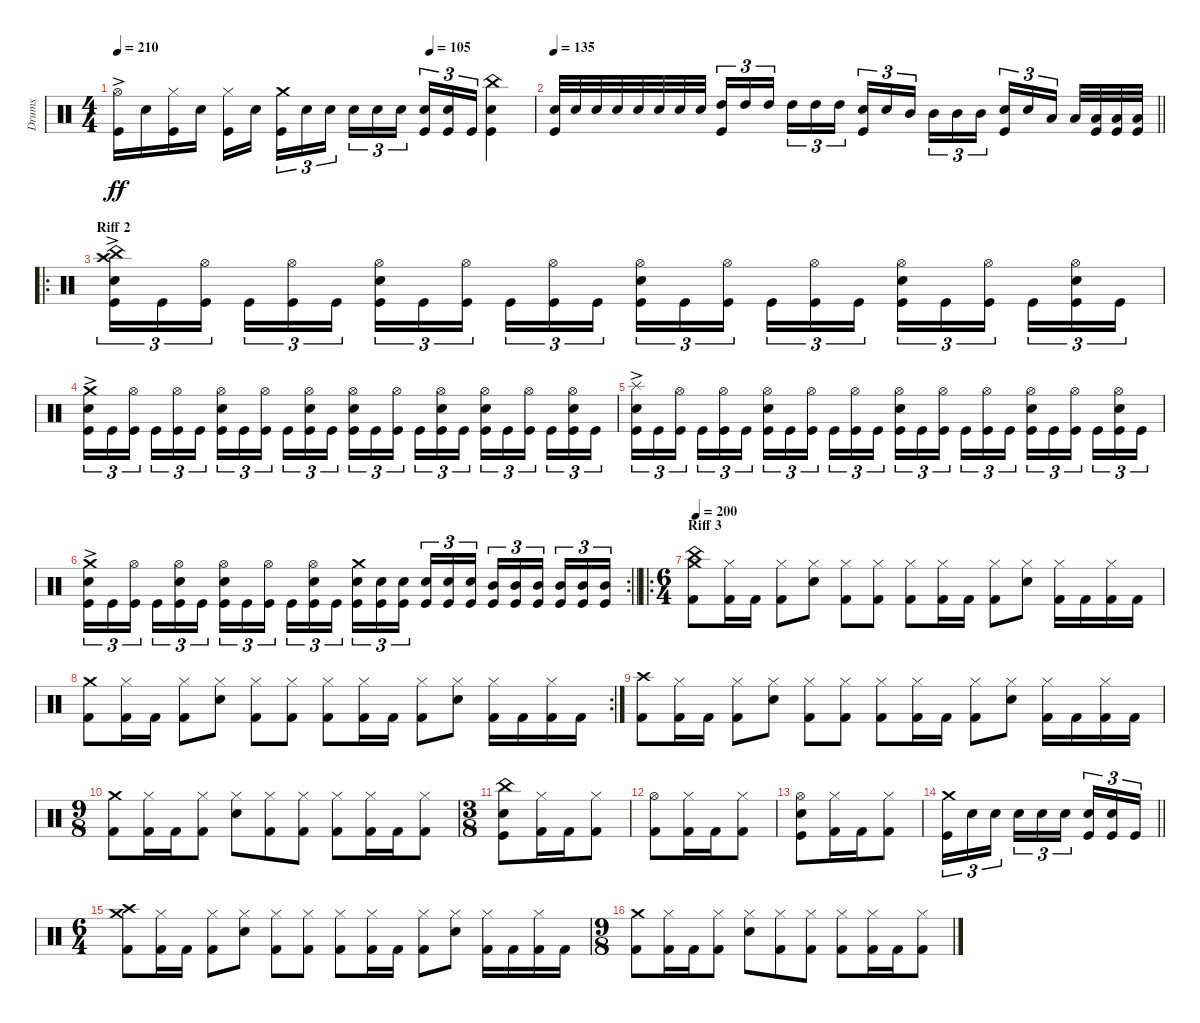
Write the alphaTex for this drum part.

\track ("Drums" "Drums") {instrument percussion}
\staff {score}
\articulation defaults
\ts (4 4)
\tempo 210
\tempo (105 0.75)
\clef neutral
\ks c
("Hi-Hat (open)"{ac} "Kick (hit)").16{dy ff} "Electric Snare (hit)".16 ("Hi-Hat (closed)" "Kick (hit)").16 "Electric Snare (hit)".16 ("Hi-Hat (closed)" "Kick (hit)").16 "Electric Snare (hit)".16{beam splitsecondary} ("Crash medium (hit)" "Kick (hit)").16{tu (3 2)} "Electric Snare (hit)".16{tu (3 2)} "Electric Snare (hit)".16{tu (3 2)} "Electric Snare (hit)".16{tu (3 2)} "Electric Snare (hit)".16{tu (3 2)} "Electric Snare (hit)".16{tu (3 2) beam splitsecondary} ("Electric Snare (hit)" "Kick (hit)").16{tu (3 2)} ("Electric Snare (hit)" "Kick (hit)").16{tu (3 2)} "Kick (hit)".16{tu (3 2)} ("China (hit)" "Electric Snare (hit)" "Kick (hit)").4 |
\tempo 135
\barLineRight lightlight
("Electric Snare (hit)" "Kick (hit)").32{volume 16} "Electric Snare (hit)".32 "Electric Snare (hit)".32 "Electric Snare (hit)".32 "Electric Snare (hit)".32 "Electric Snare (hit)".32 "Electric Snare (hit)".32 "Electric Snare (hit)".32 ("High Tom (hit)" "Kick (hit)").16{tu (3 2)} "High Tom (hit)".16{tu (3 2)} "High Tom (hit)".16{tu (3 2) beam splitsecondary} "High Tom (hit)".16{tu (3 2)} "High Tom (hit)".16{tu (3 2)} "High Tom (hit)".16{tu (3 2)} ("Electric Snare (hit)" "Kick (hit)").16{tu (3 2)} "Electric Snare (hit)".16{tu (3 2)} "Mid Tom (hit)".16{tu (3 2) beam splitsecondary} "Mid Tom (hit)".16{tu (3 2)} "Mid Tom (hit)".16{tu (3 2)} "Mid Tom (hit)".16{tu (3 2)} ("Electric Snare (hit)" "Kick (hit)").16{tu (3 2)} "Electric Snare (hit)".16{tu (3 2)} "Low Tom (hit)".16{tu (3 2) beam splitsecondary} "Low Tom (hit)".32 ("Low Tom (hit)" "Kick (hit)").32 ("Low Tom (hit)" "Kick (hit)").32 ("Low Tom (hit)" "Kick (hit)").32 |
\ro
\section ("" "Riff 2")
("China (hit)"{ac} "Crash high (hit)" "Electric Snare (hit)" "Kick (hit)").16{tu (3 2) volume 15} "Kick (hit)".16{tu (3 2)} ("Hi-Hat (open)" "Kick (hit)").16{tu (3 2) beam splitsecondary} "Kick (hit)".16{tu (3 2)} ("Hi-Hat (open)" "Kick (hit)").16{tu (3 2)} "Kick (hit)".16{tu (3 2)} ("Hi-Hat (open)" "Electric Snare (hit)" "Kick (hit)").16{tu (3 2)} "Kick (hit)".16{tu (3 2)} ("Hi-Hat (open)" "Kick (hit)").16{tu (3 2) beam splitsecondary} "Kick (hit)".16{tu (3 2)} ("Hi-Hat (open)" "Kick (hit)").16{tu (3 2)} "Kick (hit)".16{tu (3 2)} ("Hi-Hat (open)" "Electric Snare (hit)" "Kick (hit)").16{tu (3 2)} "Kick (hit)".16{tu (3 2)} ("Hi-Hat (open)" "Kick (hit)").16{tu (3 2) beam splitsecondary} "Kick (hit)".16{tu (3 2)} ("Hi-Hat (open)" "Kick (hit)").16{tu (3 2)} "Kick (hit)".16{tu (3 2)} ("Hi-Hat (open)" "Electric Snare (hit)" "Kick (hit)").16{tu (3 2)} "Kick (hit)".16{tu (3 2)} ("Hi-Hat (open)" "Kick (hit)").16{tu (3 2) beam splitsecondary} "Kick (hit)".16{tu (3 2)} ("Hi-Hat (open)" "Electric Snare (hit)" "Kick (hit)").16{tu (3 2)} "Kick (hit)".16{tu (3 2)} |
("Crash medium (hit)"{ac} "Electric Snare (hit)" "Kick (hit)").16{tu (3 2)} "Kick (hit)".16{tu (3 2)} ("Hi-Hat (open)" "Kick (hit)").16{tu (3 2) beam splitsecondary} "Kick (hit)".16{tu (3 2)} ("Hi-Hat (open)" "Kick (hit)").16{tu (3 2)} "Kick (hit)".16{tu (3 2)} ("Hi-Hat (open)" "Electric Snare (hit)" "Kick (hit)").16{tu (3 2)} "Kick (hit)".16{tu (3 2)} ("Hi-Hat (open)" "Kick (hit)").16{tu (3 2) beam splitsecondary} "Kick (hit)".16{tu (3 2)} ("Hi-Hat (open)" "Electric Snare (hit)" "Kick (hit)").16{tu (3 2)} "Kick (hit)".16{tu (3 2)} ("Hi-Hat (open)" "Electric Snare (hit)" "Kick (hit)").16{tu (3 2)} "Kick (hit)".16{tu (3 2)} ("Hi-Hat (open)" "Kick (hit)").16{tu (3 2) beam splitsecondary} "Kick (hit)".16{tu (3 2)} ("Hi-Hat (open)" "Electric Snare (hit)" "Kick (hit)").16{tu (3 2)} "Kick (hit)".16{tu (3 2)} ("Hi-Hat (open)" "Electric Snare (hit)" "Kick (hit)").16{tu (3 2)} "Kick (hit)".16{tu (3 2)} ("Hi-Hat (open)" "Kick (hit)").16{tu (3 2) beam splitsecondary} "Kick (hit)".16{tu (3 2)} ("Hi-Hat (open)" "Electric Snare (hit)" "Kick (hit)").16{tu (3 2)} "Kick (hit)".16{tu (3 2)} |
("Splash (hit)"{ac} "Electric Snare (hit)" "Kick (hit)").16{tu (3 2)} "Kick (hit)".16{tu (3 2)} ("Hi-Hat (open)" "Kick (hit)").16{tu (3 2) beam splitsecondary} "Kick (hit)".16{tu (3 2)} ("Hi-Hat (open)" "Kick (hit)").16{tu (3 2)} "Kick (hit)".16{tu (3 2)} ("Hi-Hat (open)" "Electric Snare (hit)" "Kick (hit)").16{tu (3 2)} "Kick (hit)".16{tu (3 2)} ("Hi-Hat (open)" "Kick (hit)").16{tu (3 2) beam splitsecondary} "Kick (hit)".16{tu (3 2)} ("Hi-Hat (open)" "Kick (hit)").16{tu (3 2)} "Kick (hit)".16{tu (3 2)} ("Hi-Hat (open)" "Electric Snare (hit)" "Kick (hit)").16{tu (3 2)} "Kick (hit)".16{tu (3 2)} ("Hi-Hat (open)" "Kick (hit)").16{tu (3 2) beam splitsecondary} "Kick (hit)".16{tu (3 2)} ("Hi-Hat (open)" "Kick (hit)").16{tu (3 2)} "Kick (hit)".16{tu (3 2)} ("Hi-Hat (open)" "Electric Snare (hit)" "Kick (hit)").16{tu (3 2)} "Kick (hit)".16{tu (3 2)} ("Hi-Hat (open)" "Kick (hit)").16{tu (3 2) beam splitsecondary} "Kick (hit)".16{tu (3 2)} ("Hi-Hat (open)" "Electric Snare (hit)" "Kick (hit)").16{tu (3 2)} "Kick (hit)".16{tu (3 2)} |
\rc 2
\barLineRight lightlight
("Crash medium (hit)"{ac} "Electric Snare (hit)" "Kick (hit)").16{tu (3 2)} "Kick (hit)".16{tu (3 2)} ("Hi-Hat (open)" "Kick (hit)").16{tu (3 2) beam splitsecondary} "Kick (hit)".16{tu (3 2)} ("Hi-Hat (open)" "Electric Snare (hit)" "Kick (hit)").16{tu (3 2)} "Kick (hit)".16{tu (3 2)} ("Hi-Hat (open)" "Electric Snare (hit)" "Kick (hit)").16{tu (3 2)} "Kick (hit)".16{tu (3 2)} ("Hi-Hat (open)" "Kick (hit)").16{tu (3 2) beam splitsecondary} "Kick (hit)".16{tu (3 2)} ("Hi-Hat (open)" "Electric Snare (hit)" "Kick (hit)").16{tu (3 2)} "Kick (hit)".16{tu (3 2)} ("Crash medium (hit)" "Electric Snare (hit)" "Kick (hit)").16{tu (3 2)} ("Electric Snare (hit)" "Kick (hit)").16{tu (3 2)} ("Electric Snare (hit)" "Kick (hit)").16{tu (3 2) beam splitsecondary} ("Electric Snare (hit)" "Kick (hit)").16{tu (3 2)} ("Electric Snare (hit)" "Kick (hit)").16{tu (3 2)} ("Electric Snare (hit)" "Kick (hit)").16{tu (3 2)} ("Mid Tom (hit)" "Kick (hit)").16{tu (3 2)} ("Mid Tom (hit)" "Kick (hit)").16{tu (3 2)} ("Mid Tom (hit)" "Kick (hit)").16{tu (3 2) beam splitsecondary} ("Mid Tom (hit)" "Kick (hit)").16{tu (3 2)} ("Mid Tom (hit)" "Kick (hit)").16{tu (3 2)} ("Mid Tom (hit)" "Kick (hit)").16{tu (3 2)} |
\ro
\ts (6 4)
\section ("" "Riff 3")
\tempo 200
("China (hit)" "Crash medium (hit)" "Kick (hit) 2").8 ("Hi-Hat (closed)" "Kick (hit) 2").16 "Kick (hit) 2".16 ("Hi-Hat (closed)" "Kick (hit) 2").8 ("Hi-Hat (closed)" "Electric Snare (hit)").8 ("Hi-Hat (closed)" "Kick (hit) 2").8 ("Hi-Hat (closed)" "Kick (hit) 2").8 ("Hi-Hat (closed)" "Kick (hit) 2").8 ("Hi-Hat (closed)" "Kick (hit) 2").16 "Kick (hit) 2".16 ("Hi-Hat (closed)" "Kick (hit) 2").8 ("Hi-Hat (closed)" "Electric Snare (hit)").8 ("Hi-Hat (closed)" "Kick (hit) 2").16 "Kick (hit) 2".16 ("Hi-Hat (closed)" "Kick (hit) 2").16 "Kick (hit) 2".16 |
\rc 2
("Crash medium (hit)" "Kick (hit) 2").8 ("Hi-Hat (closed)" "Kick (hit) 2").16 "Kick (hit) 2".16 ("Hi-Hat (closed)" "Kick (hit) 2").8 ("Hi-Hat (closed)" "Electric Snare (hit)").8 ("Hi-Hat (closed)" "Kick (hit) 2").8 ("Hi-Hat (closed)" "Kick (hit) 2").8 ("Hi-Hat (closed)" "Kick (hit) 2").8 ("Hi-Hat (closed)" "Kick (hit) 2").16 "Kick (hit) 2".16 ("Hi-Hat (closed)" "Kick (hit) 2").8 ("Hi-Hat (closed)" "Electric Snare (hit)").8 ("Hi-Hat (closed)" "Kick (hit) 2").16 "Kick (hit) 2".16 ("Hi-Hat (closed)" "Kick (hit) 2").16 "Kick (hit) 2".16 |
("Crash high (hit)" "Kick (hit) 2").8 ("Hi-Hat (closed)" "Kick (hit) 2").16 "Kick (hit) 2".16 ("Hi-Hat (closed)" "Kick (hit) 2").8 ("Hi-Hat (closed)" "Electric Snare (hit)").8 ("Hi-Hat (closed)" "Kick (hit) 2").8 ("Hi-Hat (closed)" "Kick (hit) 2").8 ("Hi-Hat (closed)" "Kick (hit) 2").8 ("Hi-Hat (closed)" "Kick (hit) 2").16 "Kick (hit) 2".16 ("Hi-Hat (closed)" "Kick (hit) 2").8 ("Hi-Hat (closed)" "Electric Snare (hit)").8 ("Hi-Hat (closed)" "Kick (hit) 2").16 "Kick (hit) 2".16 ("Hi-Hat (closed)" "Kick (hit) 2").16 "Kick (hit) 2".16 |
\ts (9 8)
("Crash medium (hit)" "Kick (hit) 2").8 ("Hi-Hat (closed)" "Kick (hit) 2").16 "Kick (hit) 2".16 ("Hi-Hat (closed)" "Kick (hit) 2").8 ("Hi-Hat (closed)" "Electric Snare (hit)").8 ("Hi-Hat (closed)" "Kick (hit) 2").8 ("Hi-Hat (closed)" "Kick (hit) 2").8 ("Hi-Hat (closed)" "Kick (hit) 2").8 ("Hi-Hat (closed)" "Kick (hit) 2").16 "Kick (hit) 2".16 ("Hi-Hat (closed)" "Kick (hit) 2").8 |
\ts (3 8)
("China (hit)" "Electric Snare (hit)" "Kick (hit)").8 ("Hi-Hat (closed)" "Kick (hit) 2").16 "Kick (hit) 2".16 ("Hi-Hat (closed)" "Kick (hit) 2").8 |
("Hi-Hat (open)" "Kick (hit) 2").8 ("Hi-Hat (closed)" "Kick (hit) 2").16 "Kick (hit) 2".16 ("Hi-Hat (closed)" "Kick (hit) 2").8 |
("Hi-Hat (open)" "Electric Snare (hit)" "Kick (hit)").8 ("Hi-Hat (closed)" "Kick (hit) 2").16 "Kick (hit) 2".16 ("Hi-Hat (closed)" "Kick (hit) 2").8 |
\barLineRight lightlight
("Crash medium (hit)" "Kick (hit)").16{tu (3 2)} "Electric Snare (hit)".16{tu (3 2)} "Electric Snare (hit)".16{tu (3 2)} "Electric Snare (hit)".16{tu (3 2)} "Electric Snare (hit)".16{tu (3 2)} "Electric Snare (hit)".16{tu (3 2)} ("Electric Snare (hit)" "Kick (hit)").16{tu (3 2)} ("Electric Snare (hit)" "Kick (hit)").16{tu (3 2)} "Kick (hit)".16{tu (3 2)} |
\ts (6 4)
("Crash high (hit)" "Crash medium (hit)" "Kick (hit) 2").8 ("Hi-Hat (closed)" "Kick (hit) 2").16 "Kick (hit) 2".16 ("Hi-Hat (closed)" "Kick (hit) 2").8 ("Hi-Hat (closed)" "Electric Snare (hit)").8 ("Hi-Hat (closed)" "Kick (hit) 2").8 ("Hi-Hat (closed)" "Kick (hit) 2").8 ("Hi-Hat (closed)" "Kick (hit) 2").8 ("Hi-Hat (closed)" "Kick (hit) 2").16 "Kick (hit) 2".16 ("Hi-Hat (closed)" "Kick (hit) 2").8 ("Hi-Hat (closed)" "Electric Snare (hit)").8 ("Hi-Hat (closed)" "Kick (hit) 2").16 "Kick (hit) 2".16 ("Hi-Hat (closed)" "Kick (hit) 2").16 "Kick (hit) 2".16 |
\ts (9 8)
("Crash medium (hit)" "Kick (hit) 2").8 ("Hi-Hat (closed)" "Kick (hit) 2").16 "Kick (hit) 2".16 ("Hi-Hat (closed)" "Kick (hit) 2").8 ("Hi-Hat (closed)" "Electric Snare (hit)").8 ("Hi-Hat (closed)" "Kick (hit) 2").8 ("Hi-Hat (closed)" "Kick (hit) 2").8 ("Hi-Hat (closed)" "Kick (hit) 2").8 ("Hi-Hat (closed)" "Kick (hit) 2").16 "Kick (hit) 2".16 ("Hi-Hat (closed)" "Kick (hit) 2").8
